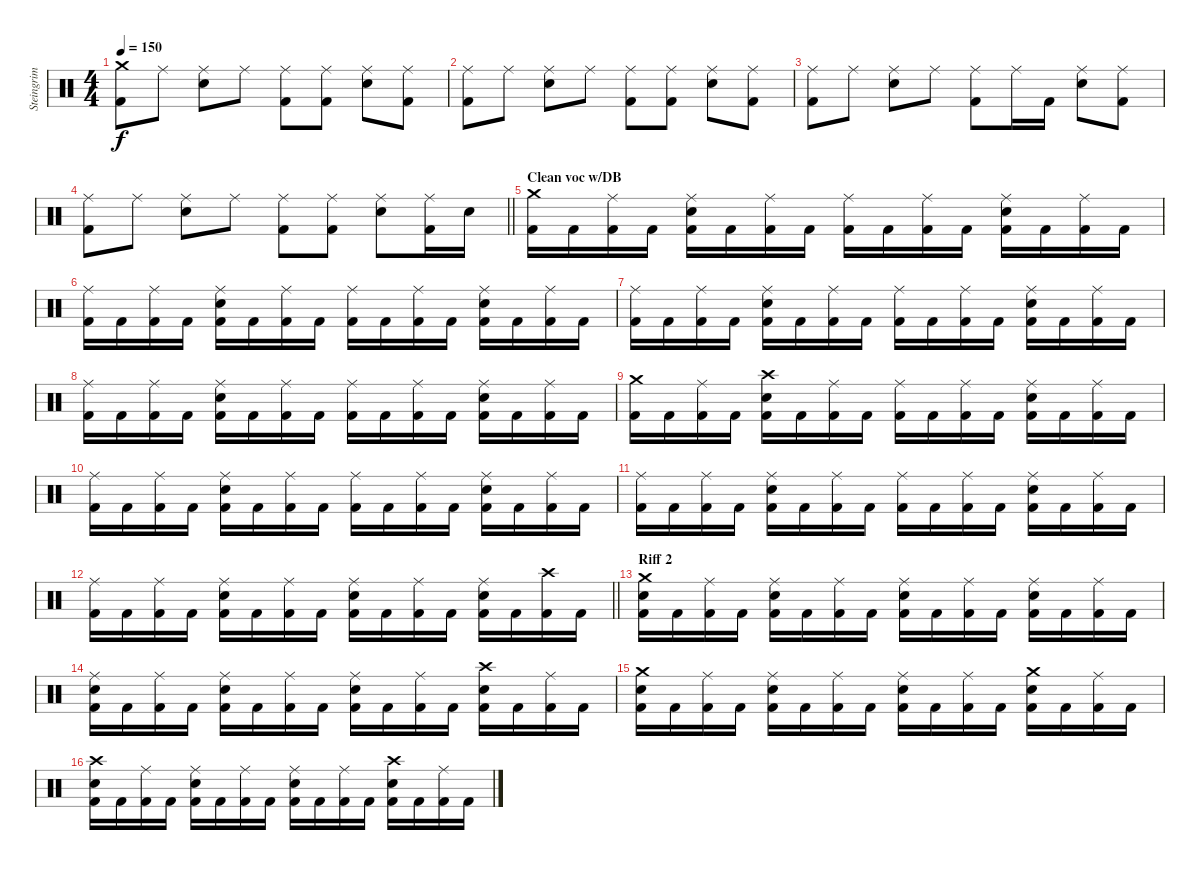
\track ("Steingrim" "Steingrim") {instrument percussion}
\staff {score}
\articulation defaults
\ts (4 4)
\tempo 150
\clef neutral
\ks c
("Crash medium (hit)" "Kick (hit) 2").8{dy f} "Ride (middle)".8 ("Ride (middle)" "Snare (hit) 2").8 "Ride (middle)".8 ("Ride (middle)" "Kick (hit) 2").8 ("Ride (middle)" "Kick (hit) 2").8 ("Ride (middle)" "Snare (hit) 2").8 ("Ride (middle)" "Kick (hit) 2").8 |
("Ride (middle)" "Kick (hit) 2").8 "Ride (middle)".8 ("Ride (middle)" "Snare (hit) 2").8 "Ride (middle)".8 ("Ride (middle)" "Kick (hit) 2").8 ("Ride (middle)" "Kick (hit) 2").8 ("Ride (middle)" "Snare (hit) 2").8 ("Ride (middle)" "Kick (hit) 2").8 |
("Ride (middle)" "Kick (hit) 2").8 "Ride (middle)".8 ("Ride (middle)" "Snare (hit) 2").8 "Ride (middle)".8 ("Ride (middle)" "Kick (hit) 2").8 "Ride (middle)".16 "Kick (hit) 2".16 ("Ride (middle)" "Snare (hit) 2").8 ("Ride (middle)" "Kick (hit) 2").8 |
\barLineRight lightlight
("Ride (middle)" "Kick (hit) 2").8 "Ride (middle)".8 ("Ride (middle)" "Snare (hit) 2").8 "Ride (middle)".8 ("Ride (middle)" "Kick (hit) 2").8 ("Ride (middle)" "Kick (hit) 2").8 ("Ride (middle)" "Snare (hit) 2").8 ("Ride (middle)" "Kick (hit) 2").16 "Snare (hit) 2".16 |
\section ("" "Clean voc w/DB")
("Crash medium (hit)" "Kick (hit) 2").16 "Kick (hit) 2".16 ("Ride (middle)" "Kick (hit) 2").16 "Kick (hit) 2".16 ("Ride (middle)" "Snare (hit) 2" "Kick (hit) 2").16 "Kick (hit) 2".16 ("Ride (middle)" "Kick (hit) 2").16 "Kick (hit) 2".16 ("Ride (middle)" "Kick (hit) 2").16 "Kick (hit) 2".16 ("Ride (middle)" "Kick (hit) 2").16 "Kick (hit) 2".16 ("Ride (middle)" "Snare (hit) 2" "Kick (hit) 2").16 "Kick (hit) 2".16 ("Ride (middle)" "Kick (hit) 2").16 "Kick (hit) 2".16 |
("Ride (middle)" "Kick (hit) 2").16 "Kick (hit) 2".16 ("Ride (middle)" "Kick (hit) 2").16 "Kick (hit) 2".16 ("Ride (middle)" "Snare (hit) 2" "Kick (hit) 2").16 "Kick (hit) 2".16 ("Ride (middle)" "Kick (hit) 2").16 "Kick (hit) 2".16 ("Ride (middle)" "Kick (hit) 2").16 "Kick (hit) 2".16 ("Ride (middle)" "Kick (hit) 2").16 "Kick (hit) 2".16 ("Ride (middle)" "Snare (hit) 2" "Kick (hit) 2").16 "Kick (hit) 2".16 ("Ride (middle)" "Kick (hit) 2").16 "Kick (hit) 2".16 |
("Ride (middle)" "Kick (hit) 2").16 "Kick (hit) 2".16 ("Ride (middle)" "Kick (hit) 2").16 "Kick (hit) 2".16 ("Ride (middle)" "Snare (hit) 2" "Kick (hit) 2").16 "Kick (hit) 2".16 ("Ride (middle)" "Kick (hit) 2").16 "Kick (hit) 2".16 ("Ride (middle)" "Kick (hit) 2").16 "Kick (hit) 2".16 ("Ride (middle)" "Kick (hit) 2").16 "Kick (hit) 2".16 ("Ride (middle)" "Snare (hit) 2" "Kick (hit) 2").16 "Kick (hit) 2".16 ("Ride (middle)" "Kick (hit) 2").16 "Kick (hit) 2".16 |
("Ride (middle)" "Kick (hit) 2").16 "Kick (hit) 2".16 ("Ride (middle)" "Kick (hit) 2").16 "Kick (hit) 2".16 ("Ride (middle)" "Snare (hit) 2" "Kick (hit) 2").16 "Kick (hit) 2".16 ("Ride (middle)" "Kick (hit) 2").16 "Kick (hit) 2".16 ("Ride (middle)" "Kick (hit) 2").16 "Kick (hit) 2".16 ("Ride (middle)" "Kick (hit) 2").16 "Kick (hit) 2".16 ("Ride (middle)" "Snare (hit) 2" "Kick (hit) 2").16 "Kick (hit) 2".16 ("Ride (middle)" "Kick (hit) 2").16 "Kick (hit) 2".16 |
("Crash medium (hit)" "Kick (hit) 2").16 "Kick (hit) 2".16 ("Ride (middle)" "Kick (hit) 2").16 "Kick (hit) 2".16 ("Crash high (hit)" "Snare (hit) 2" "Kick (hit) 2").16 "Kick (hit) 2".16 ("Ride (middle)" "Kick (hit) 2").16 "Kick (hit) 2".16 ("Ride (middle)" "Kick (hit) 2").16 "Kick (hit) 2".16 ("Ride (middle)" "Kick (hit) 2").16 "Kick (hit) 2".16 ("Ride (middle)" "Snare (hit) 2" "Kick (hit) 2").16 "Kick (hit) 2".16 ("Ride (middle)" "Kick (hit) 2").16 "Kick (hit) 2".16 |
("Ride (middle)" "Kick (hit) 2").16 "Kick (hit) 2".16 ("Ride (middle)" "Kick (hit) 2").16 "Kick (hit) 2".16 ("Ride (middle)" "Snare (hit) 2" "Kick (hit) 2").16 "Kick (hit) 2".16 ("Ride (middle)" "Kick (hit) 2").16 "Kick (hit) 2".16 ("Ride (middle)" "Kick (hit) 2").16 "Kick (hit) 2".16 ("Ride (middle)" "Kick (hit) 2").16 "Kick (hit) 2".16 ("Ride (middle)" "Snare (hit) 2" "Kick (hit) 2").16 "Kick (hit) 2".16 ("Ride (middle)" "Kick (hit) 2").16 "Kick (hit) 2".16 |
("Ride (middle)" "Kick (hit) 2").16 "Kick (hit) 2".16 ("Ride (middle)" "Kick (hit) 2").16 "Kick (hit) 2".16 ("Ride (middle)" "Snare (hit) 2" "Kick (hit) 2").16 "Kick (hit) 2".16 ("Ride (middle)" "Kick (hit) 2").16 "Kick (hit) 2".16 ("Ride (middle)" "Kick (hit) 2").16 "Kick (hit) 2".16 ("Ride (middle)" "Kick (hit) 2").16 "Kick (hit) 2".16 ("Ride (middle)" "Snare (hit) 2" "Kick (hit) 2").16 "Kick (hit) 2".16 ("Ride (middle)" "Kick (hit) 2").16 "Kick (hit) 2".16 |
\barLineRight lightlight
("Ride (middle)" "Kick (hit) 2").16 "Kick (hit) 2".16 ("Ride (middle)" "Kick (hit) 2").16 "Kick (hit) 2".16 ("Ride (middle)" "Snare (hit) 2" "Kick (hit) 2").16 "Kick (hit) 2".16 ("Ride (middle)" "Kick (hit) 2").16 "Kick (hit) 2".16 ("Ride (middle)" "Snare (hit) 2" "Kick (hit) 2").16 "Kick (hit) 2".16 ("Ride (middle)" "Kick (hit) 2").16 "Kick (hit) 2".16 ("Ride (middle)" "Snare (hit) 2" "Kick (hit) 2").16 "Kick (hit) 2".16 ("Crash high (hit)" "Kick (hit) 2").16 "Kick (hit) 2".16 |
\section ("" "Riff 2")
("Crash medium (hit)" "Snare (hit) 2" "Kick (hit) 2").16 "Kick (hit) 2".16 ("Ride (middle)" "Kick (hit) 2").16 "Kick (hit) 2".16 ("Ride (middle)" "Snare (hit) 2" "Kick (hit) 2").16 "Kick (hit) 2".16 ("Ride (middle)" "Kick (hit) 2").16 "Kick (hit) 2".16 ("Ride (middle)" "Snare (hit) 2" "Kick (hit) 2").16 "Kick (hit) 2".16 ("Ride (middle)" "Kick (hit) 2").16 "Kick (hit) 2".16 ("Ride (middle)" "Snare (hit) 2" "Kick (hit) 2").16 "Kick (hit) 2".16 ("Ride (middle)" "Kick (hit) 2").16 "Kick (hit) 2".16 |
("Ride (middle)" "Snare (hit) 2" "Kick (hit) 2").16 "Kick (hit) 2".16 ("Ride (middle)" "Kick (hit) 2").16 "Kick (hit) 2".16 ("Ride (middle)" "Snare (hit) 2" "Kick (hit) 2").16 "Kick (hit) 2".16 ("Ride (middle)" "Kick (hit) 2").16 "Kick (hit) 2".16 ("Ride (middle)" "Snare (hit) 2" "Kick (hit) 2").16 "Kick (hit) 2".16 ("Ride (middle)" "Kick (hit) 2").16 "Kick (hit) 2".16 ("Crash high (hit)" "Snare (hit) 2" "Kick (hit) 2").16 "Kick (hit) 2".16 ("Ride (middle)" "Kick (hit) 2").16 "Kick (hit) 2".16 |
("Crash medium (hit)" "Snare (hit) 2" "Kick (hit) 2").16 "Kick (hit) 2".16 ("Ride (middle)" "Kick (hit) 2").16 "Kick (hit) 2".16 ("Ride (middle)" "Snare (hit) 2" "Kick (hit) 2").16 "Kick (hit) 2".16 ("Ride (middle)" "Kick (hit) 2").16 "Kick (hit) 2".16 ("Ride (middle)" "Snare (hit) 2" "Kick (hit) 2").16 "Kick (hit) 2".16 ("Ride (middle)" "Kick (hit) 2").16 "Kick (hit) 2".16 ("Crash medium (hit)" "Snare (hit) 2" "Kick (hit) 2").16 "Kick (hit) 2".16 ("Ride (middle)" "Kick (hit) 2").16 "Kick (hit) 2".16 |
("Crash high (hit)" "Snare (hit) 2" "Kick (hit) 2").16 "Kick (hit) 2".16 ("Ride (middle)" "Kick (hit) 2").16 "Kick (hit) 2".16 ("Ride (middle)" "Snare (hit) 2" "Kick (hit) 2").16 "Kick (hit) 2".16 ("Ride (middle)" "Kick (hit) 2").16 "Kick (hit) 2".16 ("Ride (middle)" "Snare (hit) 2" "Kick (hit) 2").16 "Kick (hit) 2".16 ("Ride (middle)" "Kick (hit) 2").16 "Kick (hit) 2".16 ("Crash high (hit)" "Snare (hit) 2" "Kick (hit) 2").16 "Kick (hit) 2".16 ("Ride (middle)" "Kick (hit) 2").16 "Kick (hit) 2".16
